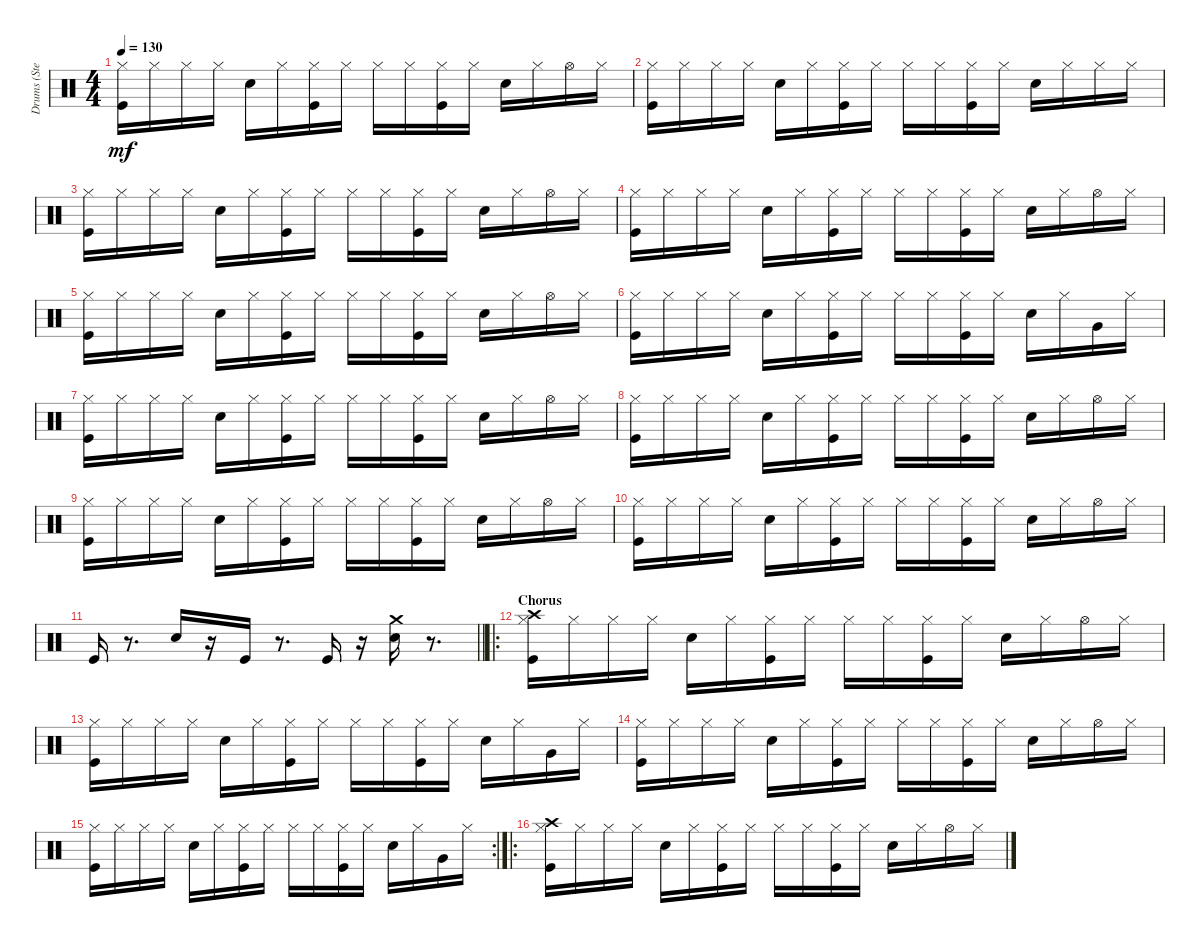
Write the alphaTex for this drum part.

\track ("Drums (Stephen Morris)" "Drums (Ste") {instrument percussion}
\staff {score}
\articulation defaults
\ts (4 4)
\tempo 130
\clef neutral
\ks c
("Kick (hit)" "Hi-Hat (closed)").16{dy mf} "Hi-Hat (closed)".16 "Hi-Hat (closed)".16 "Hi-Hat (closed)".16 "Snare (hit) 2".16 "Hi-Hat (closed)".16 ("Hi-Hat (closed)" "Kick (hit)").16 "Hi-Hat (closed)".16 "Hi-Hat (closed)".16 "Hi-Hat (closed)".16 ("Kick (hit)" "Hi-Hat (closed)").16 "Hi-Hat (closed)".16 "Snare (hit) 2".16 "Hi-Hat (closed)".16 "Hi-Hat (open)".16 "Hi-Hat (closed)".16 |
("Hi-Hat (closed)" "Kick (hit)").16 "Hi-Hat (closed)".16 "Hi-Hat (closed)".16 "Hi-Hat (closed)".16 "Snare (hit) 2".16 "Hi-Hat (closed)".16 ("Kick (hit)" "Hi-Hat (closed)").16 "Hi-Hat (closed)".16 "Hi-Hat (closed)".16 "Hi-Hat (closed)".16 ("Kick (hit)" "Hi-Hat (closed)").16 "Hi-Hat (closed)".16 "Snare (hit) 2".16 "Hi-Hat (closed)".16 "Hi-Hat (closed)".16 "Hi-Hat (closed)".16 |
("Kick (hit)" "Hi-Hat (closed)").16 "Hi-Hat (closed)".16 "Hi-Hat (closed)".16 "Hi-Hat (closed)".16 "Snare (hit) 2".16 "Hi-Hat (closed)".16 ("Kick (hit)" "Hi-Hat (closed)").16 "Hi-Hat (closed)".16 "Hi-Hat (closed)".16 "Hi-Hat (closed)".16 ("Kick (hit)" "Hi-Hat (closed)").16 "Hi-Hat (closed)".16 "Snare (hit) 2".16 "Hi-Hat (closed)".16 "Hi-Hat (open)".16 "Hi-Hat (closed)".16 |
("Kick (hit)" "Hi-Hat (closed)").16 "Hi-Hat (closed)".16 "Hi-Hat (closed)".16 "Hi-Hat (closed)".16 "Snare (hit) 2".16 "Hi-Hat (closed)".16 ("Kick (hit)" "Hi-Hat (closed)").16 "Hi-Hat (closed)".16 "Hi-Hat (closed)".16 "Hi-Hat (closed)".16 ("Kick (hit)" "Hi-Hat (closed)").16 "Hi-Hat (closed)".16 "Snare (hit) 2".16 "Hi-Hat (closed)".16 "Hi-Hat (open)".16 "Hi-Hat (closed)".16 |
("Kick (hit)" "Hi-Hat (closed)").16 "Hi-Hat (closed)".16 "Hi-Hat (closed)".16 "Hi-Hat (closed)".16 "Snare (hit) 2".16 "Hi-Hat (closed)".16 ("Kick (hit)" "Hi-Hat (closed)").16 "Hi-Hat (closed)".16 "Hi-Hat (closed)".16 "Hi-Hat (closed)".16 ("Hi-Hat (closed)" "Kick (hit)").16 "Hi-Hat (closed)".16 "Snare (hit) 2".16 "Hi-Hat (closed)".16 "Hi-Hat (open)".16 "Hi-Hat (closed)".16 |
("Kick (hit)" "Hi-Hat (closed)").16 "Hi-Hat (closed)".16 "Hi-Hat (closed)".16 "Hi-Hat (closed)".16 "Snare (hit) 2".16 "Hi-Hat (closed)".16 ("Hi-Hat (closed)" "Kick (hit)").16 "Hi-Hat (closed)".16 "Hi-Hat (closed)".16 "Hi-Hat (closed)".16 ("Hi-Hat (closed)" "Kick (hit)").16 "Hi-Hat (closed)".16 "Snare (hit) 2".16 "Hi-Hat (closed)".16 "Very Low Tom (hit)".16 "Hi-Hat (closed)".16 |
("Hi-Hat (closed)" "Kick (hit)").16 "Hi-Hat (closed)".16 "Hi-Hat (closed)".16 "Hi-Hat (closed)".16 "Snare (hit) 2".16 "Hi-Hat (closed)".16 ("Hi-Hat (closed)" "Kick (hit)").16 "Hi-Hat (closed)".16 "Hi-Hat (closed)".16 "Hi-Hat (closed)".16 ("Kick (hit)" "Hi-Hat (closed)").16 "Hi-Hat (closed)".16 "Snare (hit) 2".16 "Hi-Hat (closed)".16 "Hi-Hat (open)".16 "Hi-Hat (closed)".16 |
("Kick (hit)" "Hi-Hat (closed)").16 "Hi-Hat (closed)".16 "Hi-Hat (closed)".16 "Hi-Hat (closed)".16 "Snare (hit) 2".16 "Hi-Hat (closed)".16 ("Kick (hit)" "Hi-Hat (closed)").16 "Hi-Hat (closed)".16 "Hi-Hat (closed)".16 "Hi-Hat (closed)".16 ("Kick (hit)" "Hi-Hat (closed)").16 "Hi-Hat (closed)".16 "Snare (hit) 2".16 "Hi-Hat (closed)".16 "Hi-Hat (open)".16 "Hi-Hat (closed)".16 |
("Hi-Hat (closed)" "Kick (hit)").16 "Hi-Hat (closed)".16 "Hi-Hat (closed)".16 "Hi-Hat (closed)".16 "Snare (hit) 2".16 "Hi-Hat (closed)".16 ("Kick (hit)" "Hi-Hat (closed)").16 "Hi-Hat (closed)".16 "Hi-Hat (closed)".16 "Hi-Hat (closed)".16 ("Kick (hit)" "Hi-Hat (closed)").16 "Hi-Hat (closed)".16 "Snare (hit) 2".16 "Hi-Hat (closed)".16 "Hi-Hat (open)".16 "Hi-Hat (closed)".16 |
("Kick (hit)" "Hi-Hat (closed)").16 "Hi-Hat (closed)".16 "Hi-Hat (closed)".16 "Hi-Hat (closed)".16 "Snare (hit) 2".16 "Hi-Hat (closed)".16 ("Hi-Hat (closed)" "Kick (hit)").16 "Hi-Hat (closed)".16 "Hi-Hat (closed)".16 "Hi-Hat (closed)".16 ("Kick (hit)" "Hi-Hat (closed)").16 "Hi-Hat (closed)".16 "Snare (hit) 2".16 "Hi-Hat (closed)".16 "Hi-Hat (open)".16 "Hi-Hat (closed)".16 |
\barLineRight lightlight "Kick (hit)".16
r.8{d} "Hand Clap (hit)".16 r.16 "Kick (hit)".16 r.8{d} "Kick (hit)".16 r.16 ("Hand Clap (hit)" "Crash medium (hit)").16 r.8{d} |
\ro
\section ("" "Chorus")
("Hi-Hat (closed)" "Crash high (hit)" "Kick (hit)").16 "Hi-Hat (closed)".16 "Hi-Hat (closed)".16 "Hi-Hat (closed)".16 "Snare (hit) 2".16 "Hi-Hat (closed)".16 ("Kick (hit)" "Hi-Hat (closed)").16 "Hi-Hat (closed)".16 "Hi-Hat (closed)".16 "Hi-Hat (closed)".16 ("Kick (hit)" "Hi-Hat (closed)").16 "Hi-Hat (closed)".16 "Snare (hit) 2".16 "Hi-Hat (closed)".16 "Hi-Hat (open)".16 "Hi-Hat (closed)".16 |
("Hi-Hat (closed)" "Kick (hit)").16 "Hi-Hat (closed)".16 "Hi-Hat (closed)".16 "Hi-Hat (closed)".16 "Snare (hit) 2".16 "Hi-Hat (closed)".16 ("Hi-Hat (closed)" "Kick (hit)").16 "Hi-Hat (closed)".16 "Hi-Hat (closed)".16 "Hi-Hat (closed)".16 ("Hi-Hat (closed)" "Kick (hit)").16 "Hi-Hat (closed)".16 "Snare (hit) 2".16 "Hi-Hat (closed)".16 "Very Low Tom (hit)".16 "Hi-Hat (closed)".16 |
("Kick (hit)" "Hi-Hat (closed)").16 "Hi-Hat (closed)".16 "Hi-Hat (closed)".16 "Hi-Hat (closed)".16 "Snare (hit) 2".16 "Hi-Hat (closed)".16 ("Hi-Hat (closed)" "Kick (hit)").16 "Hi-Hat (closed)".16 "Hi-Hat (closed)".16 "Hi-Hat (closed)".16 ("Hi-Hat (closed)" "Kick (hit)").16 "Hi-Hat (closed)".16 "Snare (hit) 2".16 "Hi-Hat (closed)".16 "Hi-Hat (open)".16 "Hi-Hat (closed)".16 |
\rc 2
("Hi-Hat (closed)" "Kick (hit)").16 "Hi-Hat (closed)".16 "Hi-Hat (closed)".16 "Hi-Hat (closed)".16 "Snare (hit) 2".16 "Hi-Hat (closed)".16 ("Hi-Hat (closed)" "Kick (hit)").16 "Hi-Hat (closed)".16 "Hi-Hat (closed)".16 "Hi-Hat (closed)".16 ("Kick (hit)" "Hi-Hat (closed)").16 "Hi-Hat (closed)".16 "Snare (hit) 2".16 "Hi-Hat (closed)".16 "Very Low Tom (hit)".16 "Hi-Hat (closed)".16 |
\ro
("Hi-Hat (closed)" "Crash high (hit)" "Kick (hit)").16 "Hi-Hat (closed)".16 "Hi-Hat (closed)".16 "Hi-Hat (closed)".16 "Snare (hit) 2".16 "Hi-Hat (closed)".16 ("Kick (hit)" "Hi-Hat (closed)").16 "Hi-Hat (closed)".16 "Hi-Hat (closed)".16 "Hi-Hat (closed)".16 ("Kick (hit)" "Hi-Hat (closed)").16 "Hi-Hat (closed)".16 "Snare (hit) 2".16 "Hi-Hat (closed)".16 "Hi-Hat (open)".16 "Hi-Hat (closed)".16
